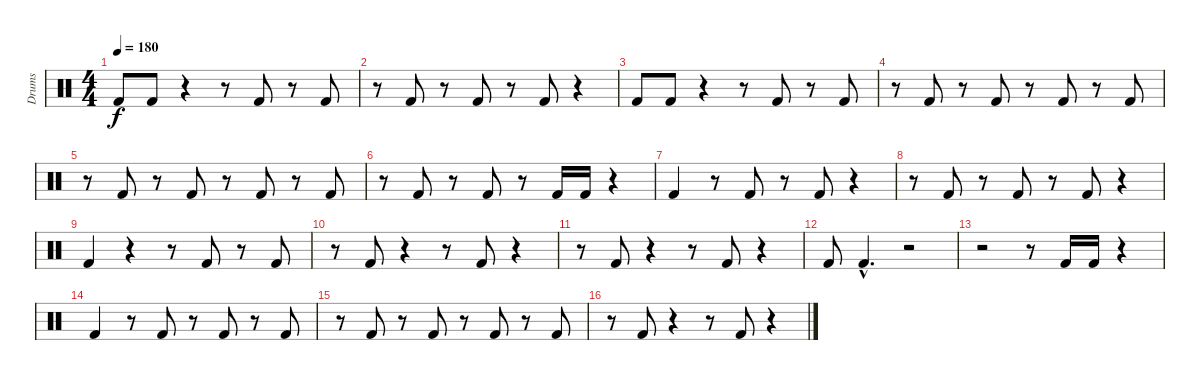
\track ("Drums" "Drums") {instrument percussion}
\staff {score}
\articulation defaults
\ts (4 4)
\tempo 180
\clef neutral
\ks c "Kick (hit) 2".8{dy f} "Kick (hit) 2".8
r.4 r.8 "Kick (hit) 2".8 r.8 "Kick (hit) 2".8 |
r.8 "Kick (hit) 2".8 r.8 "Kick (hit) 2".8 r.8 "Kick (hit) 2".8 r.4 |
"Kick (hit) 2".8 "Kick (hit) 2".8 r.4 r.8 "Kick (hit) 2".8 r.8 "Kick (hit) 2".8 |
r.8 "Kick (hit) 2".8 r.8 "Kick (hit) 2".8 r.8 "Kick (hit) 2".8 r.8 "Kick (hit) 2".8 |
r.8 "Kick (hit) 2".8 r.8 "Kick (hit) 2".8 r.8 "Kick (hit) 2".8 r.8 "Kick (hit) 2".8 |
r.8 "Kick (hit) 2".8 r.8 "Kick (hit) 2".8 r.8 "Kick (hit) 2".16 "Kick (hit) 2".16 r.4 |
"Kick (hit) 2".4 r.8 "Kick (hit) 2".8 r.8 "Kick (hit) 2".8 r.4 |
r.8 "Kick (hit) 2".8 r.8 "Kick (hit) 2".8 r.8 "Kick (hit) 2".8 r.4 |
"Kick (hit) 2".4 r.4 r.8 "Kick (hit) 2".8 r.8 "Kick (hit) 2".8 |
r.8 "Kick (hit) 2".8 r.4 r.8 "Kick (hit) 2".8 r.4 |
r.8 "Kick (hit) 2".8 r.4 r.8 "Kick (hit) 2".8 r.4 |
"Kick (hit) 2".8 "Kick (hit) 2"{hac}.4{d} r.2 |
r.2 r.8 "Kick (hit) 2".16 "Kick (hit) 2".16 r.4 |
"Kick (hit) 2".4 r.8 "Kick (hit) 2".8 r.8 "Kick (hit) 2".8 r.8 "Kick (hit) 2".8 |
r.8 "Kick (hit) 2".8 r.8 "Kick (hit) 2".8 r.8 "Kick (hit) 2".8 r.8 "Kick (hit) 2".8 |
r.8 "Kick (hit) 2".8 r.4 r.8 "Kick (hit) 2".8 r.4
